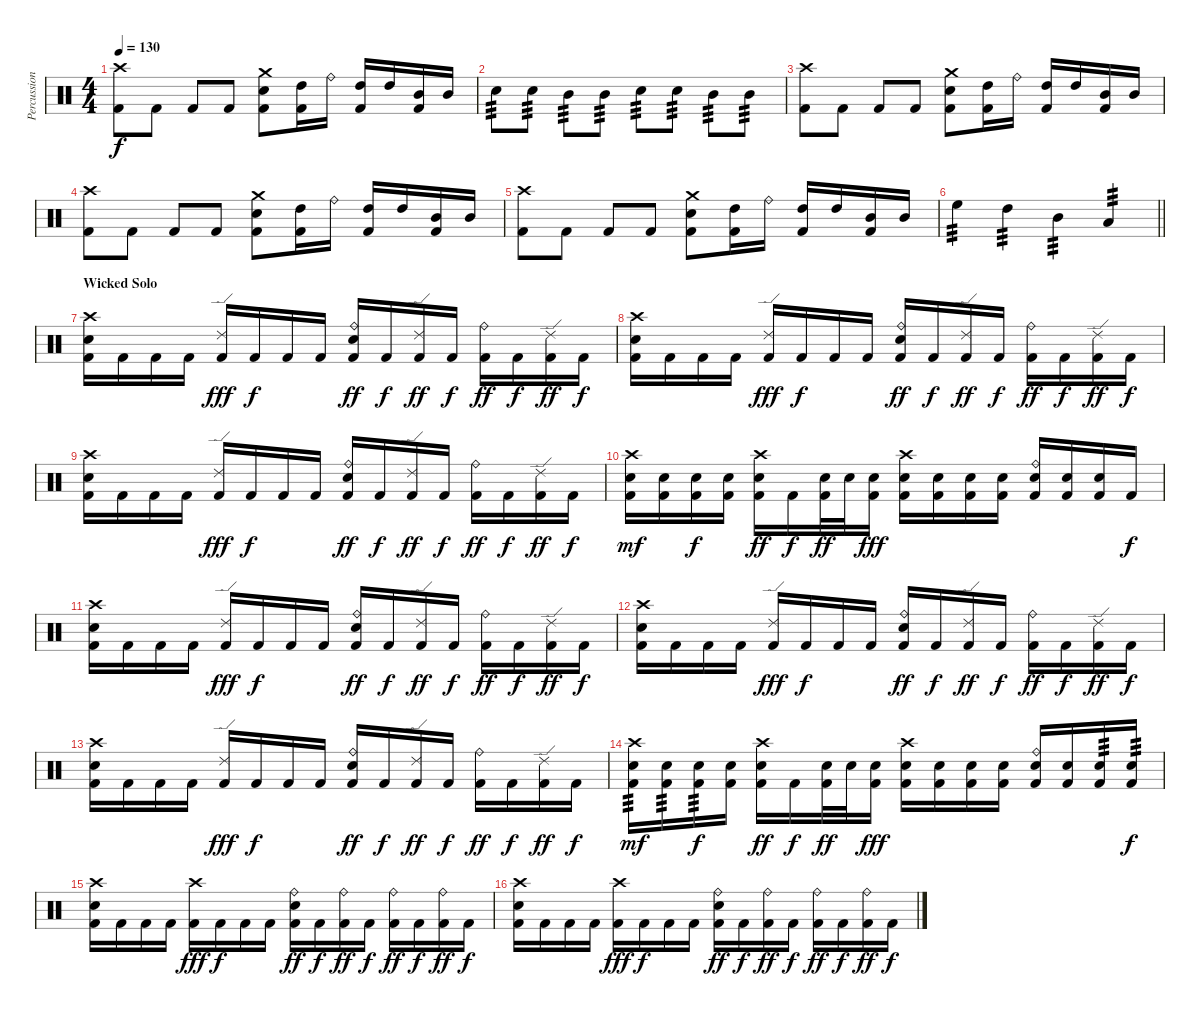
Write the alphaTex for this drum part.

\track ("Percussion" "Percussion") {instrument percussion}
\staff {score}
\articulation defaults
\ts (4 4)
\tempo 130
\clef neutral
\ks c
("Crash high (hit)" "Kick (hit) 2").8{dy f} "Kick (hit) 2".8 "Kick (hit) 2".8 "Kick (hit) 2".8 ("Crash medium (hit)" "Snare (hit) 2" "Kick (hit) 2").8 ("High Tom (hit)" "Kick (hit) 2").16 "Ride (bell)".16 ("High Tom (hit)" "Kick (hit) 2").16 "High Tom (hit)".16 ("Mid Tom (hit)" "Kick (hit) 2").16 "Mid Tom (hit)".16 |
"Electric Snare (hit)".8{tp 3} "Electric Snare (hit)".8{tp 3} "Mid Tom (hit)".8{tp 3} "Mid Tom (hit)".8{tp 3} "Electric Snare (hit)".8{tp 3} "Electric Snare (hit)".8{tp 3} "Mid Tom (hit)".8{tp 3} "Mid Tom (hit)".8{tp 3} |
("Crash high (hit)" "Kick (hit) 2").8 "Kick (hit) 2".8 "Kick (hit) 2".8 "Kick (hit) 2".8 ("Crash medium (hit)" "Snare (hit) 2" "Kick (hit) 2").8 ("High Tom (hit)" "Kick (hit) 2").16 "Ride (bell)".16 ("High Tom (hit)" "Kick (hit) 2").16 "High Tom (hit)".16 ("Mid Tom (hit)" "Kick (hit) 2").16 "Mid Tom (hit)".16 |
("Crash high (hit)" "Kick (hit) 2").8 "Kick (hit) 2".8 "Kick (hit) 2".8 "Kick (hit) 2".8 ("Crash medium (hit)" "Snare (hit) 2" "Kick (hit) 2").8 ("High Tom (hit)" "Kick (hit) 2").16 "Ride (bell)".16 ("High Tom (hit)" "Kick (hit) 2").16 "High Tom (hit)".16 ("Mid Tom (hit)" "Kick (hit) 2").16 "Mid Tom (hit)".16 |
("Crash high (hit)" "Kick (hit) 2").8 "Kick (hit) 2".8 "Kick (hit) 2".8 "Kick (hit) 2".8 ("Crash medium (hit)" "Snare (hit) 2" "Kick (hit) 2").8 ("High Tom (hit)" "Kick (hit) 2").16 "Ride (bell)".16 ("High Tom (hit)" "Kick (hit) 2").16 "High Tom (hit)".16 ("Mid Tom (hit)" "Kick (hit) 2").16 "Mid Tom (hit)".16 |
\barLineRight lightlight "High Floor Tom (hit)".4{tp 3} "High Tom (hit)".4{tp 3} "Mid Tom (hit)".4{tp 3} "Low Tom (hit)".4{tp 3}
|
\section ("" "Wicked Solo")
("Crash high (hit)" "Electric Snare (hit)" "Kick (hit) 2").16 "Kick (hit) 2".16 "Kick (hit) 2".16 "Kick (hit) 2".16 ("Ride (edge) 2" "Kick (hit) 2").16{dy fff} "Kick (hit) 2".16{dy f} "Kick (hit) 2".16 "Kick (hit) 2".16 ("Ride (bell)" "Electric Snare (hit)" "Kick (hit) 2").16{dy ff} "Kick (hit) 2".16{dy f} ("Ride (edge) 2" "Kick (hit) 2").16{dy ff} "Kick (hit) 2".16{dy f} ("Ride (bell)" "Kick (hit) 2").16{dy ff} "Kick (hit) 2".16{dy f} ("Ride (edge) 2" "Kick (hit) 2").16{dy ff} "Kick (hit) 2".16{dy f} |
("Crash high (hit)" "Electric Snare (hit)" "Kick (hit) 2").16 "Kick (hit) 2".16 "Kick (hit) 2".16 "Kick (hit) 2".16 ("Ride (edge) 2" "Kick (hit) 2").16{dy fff} "Kick (hit) 2".16{dy f} "Kick (hit) 2".16 "Kick (hit) 2".16 ("Ride (bell)" "Electric Snare (hit)" "Kick (hit) 2").16{dy ff} "Kick (hit) 2".16{dy f} ("Ride (edge) 2" "Kick (hit) 2").16{dy ff} "Kick (hit) 2".16{dy f} ("Ride (bell)" "Kick (hit) 2").16{dy ff} "Kick (hit) 2".16{dy f} ("Ride (edge) 2" "Kick (hit) 2").16{dy ff} "Kick (hit) 2".16{dy f} |
("Crash high (hit)" "Electric Snare (hit)" "Kick (hit) 2").16 "Kick (hit) 2".16 "Kick (hit) 2".16 "Kick (hit) 2".16 ("Ride (edge) 2" "Kick (hit) 2").16{dy fff} "Kick (hit) 2".16{dy f} "Kick (hit) 2".16 "Kick (hit) 2".16 ("Ride (bell)" "Electric Snare (hit)" "Kick (hit) 2").16{dy ff} "Kick (hit) 2".16{dy f} ("Ride (edge) 2" "Kick (hit) 2").16{dy ff} "Kick (hit) 2".16{dy f} ("Ride (bell)" "Kick (hit) 2").16{dy ff} "Kick (hit) 2".16{dy f} ("Ride (edge) 2" "Kick (hit) 2").16{dy ff} "Kick (hit) 2".16{dy f} |
("Crash high (hit)" "Electric Snare (hit)" "Kick (hit) 2").16{dy mf} ("Electric Snare (hit)" "Kick (hit) 2").16 ("Electric Snare (hit)" "Kick (hit) 2").16{dy f} ("Electric Snare (hit)" "Kick (hit) 2").16 ("Crash high (hit)" "Electric Snare (hit)" "Kick (hit) 2").16{dy ff} "Kick (hit) 2".16{dy f} ("Electric Snare (hit)" "Kick (hit) 2").32{dy ff} "Electric Snare (hit)".32 ("Electric Snare (hit)" "Kick (hit) 2").16{dy fff} ("Crash high (hit)" "Electric Snare (hit)" "Kick (hit) 2").16 ("Electric Snare (hit)" "Kick (hit) 2").16 ("Electric Snare (hit)" "Kick (hit) 2").16 ("Electric Snare (hit)" "Kick (hit) 2").16 ("Ride (bell)" "Electric Snare (hit)" "Kick (hit) 2").16 ("Electric Snare (hit)" "Kick (hit) 2").16 ("Electric Snare (hit)" "Kick (hit) 2").16 "Kick (hit) 2".16{dy f} |
("Crash high (hit)" "Electric Snare (hit)" "Kick (hit) 2").16 "Kick (hit) 2".16 "Kick (hit) 2".16 "Kick (hit) 2".16 ("Ride (edge) 2" "Kick (hit) 2").16{dy fff} "Kick (hit) 2".16{dy f} "Kick (hit) 2".16 "Kick (hit) 2".16 ("Ride (bell)" "Electric Snare (hit)" "Kick (hit) 2").16{dy ff} "Kick (hit) 2".16{dy f} ("Ride (edge) 2" "Kick (hit) 2").16{dy ff} "Kick (hit) 2".16{dy f} ("Ride (bell)" "Kick (hit) 2").16{dy ff} "Kick (hit) 2".16{dy f} ("Ride (edge) 2" "Kick (hit) 2").16{dy ff} "Kick (hit) 2".16{dy f} |
("Crash high (hit)" "Electric Snare (hit)" "Kick (hit) 2").16 "Kick (hit) 2".16 "Kick (hit) 2".16 "Kick (hit) 2".16 ("Ride (edge) 2" "Kick (hit) 2").16{dy fff} "Kick (hit) 2".16{dy f} "Kick (hit) 2".16 "Kick (hit) 2".16 ("Ride (bell)" "Electric Snare (hit)" "Kick (hit) 2").16{dy ff} "Kick (hit) 2".16{dy f} ("Ride (edge) 2" "Kick (hit) 2").16{dy ff} "Kick (hit) 2".16{dy f} ("Ride (bell)" "Kick (hit) 2").16{dy ff} "Kick (hit) 2".16{dy f} ("Ride (edge) 2" "Kick (hit) 2").16{dy ff} "Kick (hit) 2".16{dy f} |
("Crash high (hit)" "Electric Snare (hit)" "Kick (hit) 2").16 "Kick (hit) 2".16 "Kick (hit) 2".16 "Kick (hit) 2".16 ("Ride (edge) 2" "Kick (hit) 2").16{dy fff} "Kick (hit) 2".16{dy f} "Kick (hit) 2".16 "Kick (hit) 2".16 ("Ride (bell)" "Electric Snare (hit)" "Kick (hit) 2").16{dy ff} "Kick (hit) 2".16{dy f} ("Ride (edge) 2" "Kick (hit) 2").16{dy ff} "Kick (hit) 2".16{dy f} ("Ride (bell)" "Kick (hit) 2").16{dy ff} "Kick (hit) 2".16{dy f} ("Ride (edge) 2" "Kick (hit) 2").16{dy ff} "Kick (hit) 2".16{dy f} |
("Crash high (hit)" "Electric Snare (hit)" "Kick (hit) 2").16{tp 3 dy mf} ("Electric Snare (hit)" "Kick (hit) 2").16{tp 3} ("Electric Snare (hit)" "Kick (hit) 2").16{tp 3 dy f} ("Electric Snare (hit)" "Kick (hit) 2").16 ("Crash high (hit)" "Electric Snare (hit)" "Kick (hit) 2").16{dy ff} "Kick (hit) 2".16{dy f} ("Electric Snare (hit)" "Kick (hit) 2").32{dy ff} "Electric Snare (hit)".32 ("Electric Snare (hit)" "Kick (hit) 2").16{dy fff} ("Crash high (hit)" "Electric Snare (hit)" "Kick (hit) 2").16 ("Electric Snare (hit)" "Kick (hit) 2").16 ("Electric Snare (hit)" "Kick (hit) 2").16 ("Electric Snare (hit)" "Kick (hit) 2").16 ("Ride (bell)" "Electric Snare (hit)" "Kick (hit) 2").16 ("Electric Snare (hit)" "Kick (hit) 2").16 ("Electric Snare (hit)" "Kick (hit) 2").16{tp 3} ("Electric Snare (hit)" "Kick (hit) 2").16{tp 3 dy f} |
("Crash high (hit)" "Electric Snare (hit)" "Kick (hit) 2").16 "Kick (hit) 2".16 "Kick (hit) 2".16 "Kick (hit) 2".16 ("Crash high (hit)" "Kick (hit) 2").16{dy fff} "Kick (hit) 2".16{dy f} "Kick (hit) 2".16 "Kick (hit) 2".16 ("Ride (bell)" "Electric Snare (hit)" "Kick (hit) 2").16{dy ff} "Kick (hit) 2".16{dy f} ("Ride (bell)" "Kick (hit) 2").16{dy ff} "Kick (hit) 2".16{dy f} ("Ride (bell)" "Kick (hit) 2").16{dy ff} "Kick (hit) 2".16{dy f} ("Ride (bell)" "Kick (hit) 2").16{dy ff} "Kick (hit) 2".16{dy f} |
("Crash high (hit)" "Electric Snare (hit)" "Kick (hit) 2").16 "Kick (hit) 2".16 "Kick (hit) 2".16 "Kick (hit) 2".16 ("Crash high (hit)" "Kick (hit) 2").16{dy fff} "Kick (hit) 2".16{dy f} "Kick (hit) 2".16 "Kick (hit) 2".16 ("Ride (bell)" "Electric Snare (hit)" "Kick (hit) 2").16{dy ff} "Kick (hit) 2".16{dy f} ("Ride (bell)" "Kick (hit) 2").16{dy ff} "Kick (hit) 2".16{dy f} ("Ride (bell)" "Kick (hit) 2").16{dy ff} "Kick (hit) 2".16{dy f} ("Ride (bell)" "Kick (hit) 2").16{dy ff} "Kick (hit) 2".16{dy f}
